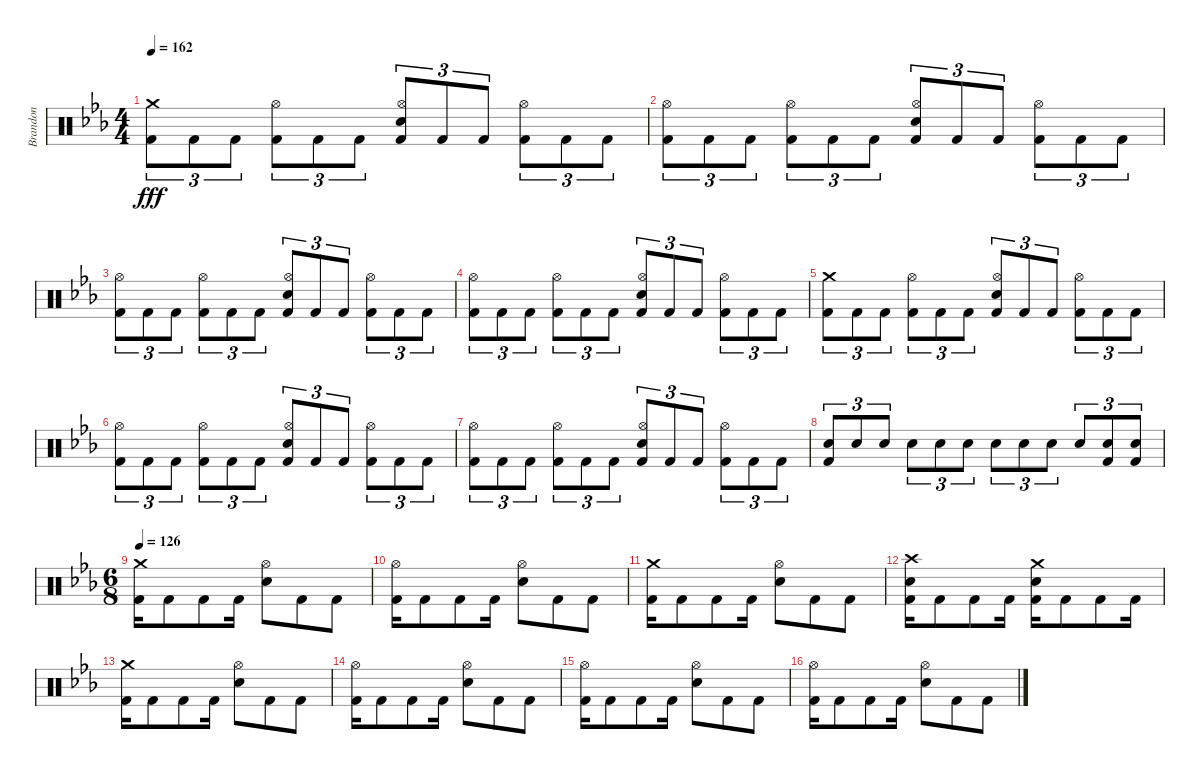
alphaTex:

\track ("Brandon" "Brandon") {instrument percussion}
\staff {score}
\articulation defaults
\ts (4 4)
\tempo 162
\clef neutral
\ks cminor
("Crash medium (hit)" "Kick (hit) 2").8{tu (3 2) dy fff} "Kick (hit) 2".8{tu (3 2)} "Kick (hit) 2".8{tu (3 2)} ("Hi-Hat (open)" "Kick (hit) 2").8{tu (3 2)} "Kick (hit) 2".8{tu (3 2)} "Kick (hit) 2".8{tu (3 2)} ("Hi-Hat (open)" "Electric Snare (hit)" "Kick (hit) 2").8{tu (3 2)} "Kick (hit) 2".8{tu (3 2)} "Kick (hit) 2".8{tu (3 2)} ("Hi-Hat (open)" "Kick (hit) 2").8{tu (3 2)} "Kick (hit) 2".8{tu (3 2)} "Kick (hit) 2".8{tu (3 2)} |
("Hi-Hat (open)" "Kick (hit) 2").8{tu (3 2)} "Kick (hit) 2".8{tu (3 2)} "Kick (hit) 2".8{tu (3 2)} ("Hi-Hat (open)" "Kick (hit) 2").8{tu (3 2)} "Kick (hit) 2".8{tu (3 2)} "Kick (hit) 2".8{tu (3 2)} ("Hi-Hat (open)" "Electric Snare (hit)" "Kick (hit) 2").8{tu (3 2)} "Kick (hit) 2".8{tu (3 2)} "Kick (hit) 2".8{tu (3 2)} ("Hi-Hat (open)" "Kick (hit) 2").8{tu (3 2)} "Kick (hit) 2".8{tu (3 2)} "Kick (hit) 2".8{tu (3 2)} |
("Hi-Hat (open)" "Kick (hit) 2").8{tu (3 2)} "Kick (hit) 2".8{tu (3 2)} "Kick (hit) 2".8{tu (3 2)} ("Hi-Hat (open)" "Kick (hit) 2").8{tu (3 2)} "Kick (hit) 2".8{tu (3 2)} "Kick (hit) 2".8{tu (3 2)} ("Hi-Hat (open)" "Electric Snare (hit)" "Kick (hit) 2").8{tu (3 2)} "Kick (hit) 2".8{tu (3 2)} "Kick (hit) 2".8{tu (3 2)} ("Hi-Hat (open)" "Kick (hit) 2").8{tu (3 2)} "Kick (hit) 2".8{tu (3 2)} "Kick (hit) 2".8{tu (3 2)} |
("Hi-Hat (open)" "Kick (hit) 2").8{tu (3 2)} "Kick (hit) 2".8{tu (3 2)} "Kick (hit) 2".8{tu (3 2)} ("Hi-Hat (open)" "Kick (hit) 2").8{tu (3 2)} "Kick (hit) 2".8{tu (3 2)} "Kick (hit) 2".8{tu (3 2)} ("Hi-Hat (open)" "Electric Snare (hit)" "Kick (hit) 2").8{tu (3 2)} "Kick (hit) 2".8{tu (3 2)} "Kick (hit) 2".8{tu (3 2)} ("Hi-Hat (open)" "Kick (hit) 2").8{tu (3 2)} "Kick (hit) 2".8{tu (3 2)} "Kick (hit) 2".8{tu (3 2)} |
("Crash medium (hit)" "Kick (hit) 2").8{tu (3 2)} "Kick (hit) 2".8{tu (3 2)} "Kick (hit) 2".8{tu (3 2)} ("Hi-Hat (open)" "Kick (hit) 2").8{tu (3 2)} "Kick (hit) 2".8{tu (3 2)} "Kick (hit) 2".8{tu (3 2)} ("Hi-Hat (open)" "Electric Snare (hit)" "Kick (hit) 2").8{tu (3 2)} "Kick (hit) 2".8{tu (3 2)} "Kick (hit) 2".8{tu (3 2)} ("Hi-Hat (open)" "Kick (hit) 2").8{tu (3 2)} "Kick (hit) 2".8{tu (3 2)} "Kick (hit) 2".8{tu (3 2)} |
("Hi-Hat (open)" "Kick (hit) 2").8{tu (3 2)} "Kick (hit) 2".8{tu (3 2)} "Kick (hit) 2".8{tu (3 2)} ("Hi-Hat (open)" "Kick (hit) 2").8{tu (3 2)} "Kick (hit) 2".8{tu (3 2)} "Kick (hit) 2".8{tu (3 2)} ("Hi-Hat (open)" "Electric Snare (hit)" "Kick (hit) 2").8{tu (3 2)} "Kick (hit) 2".8{tu (3 2)} "Kick (hit) 2".8{tu (3 2)} ("Hi-Hat (open)" "Kick (hit) 2").8{tu (3 2)} "Kick (hit) 2".8{tu (3 2)} "Kick (hit) 2".8{tu (3 2)} |
("Hi-Hat (open)" "Kick (hit) 2").8{tu (3 2)} "Kick (hit) 2".8{tu (3 2)} "Kick (hit) 2".8{tu (3 2)} ("Hi-Hat (open)" "Kick (hit) 2").8{tu (3 2)} "Kick (hit) 2".8{tu (3 2)} "Kick (hit) 2".8{tu (3 2)} ("Hi-Hat (open)" "Electric Snare (hit)" "Kick (hit) 2").8{tu (3 2)} "Kick (hit) 2".8{tu (3 2)} "Kick (hit) 2".8{tu (3 2)} ("Hi-Hat (open)" "Kick (hit) 2").8{tu (3 2)} "Kick (hit) 2".8{tu (3 2)} "Kick (hit) 2".8{tu (3 2)} |
("Electric Snare (hit)" "Kick (hit) 2").8{tu (3 2)} "Electric Snare (hit)".8{tu (3 2)} "Electric Snare (hit)".8{tu (3 2)} "Electric Snare (hit)".8{tu (3 2)} "Electric Snare (hit)".8{tu (3 2)} "Electric Snare (hit)".8{tu (3 2)} "Electric Snare (hit)".8{tu (3 2)} "Electric Snare (hit)".8{tu (3 2)} "Electric Snare (hit)".8{tu (3 2)} "Electric Snare (hit)".8{tu (3 2)} ("Electric Snare (hit)" "Kick (hit) 2").8{tu (3 2)} ("Electric Snare (hit)" "Kick (hit) 2").8{tu (3 2)} |
\ts (6 8)
\tempo 126
("Crash medium (hit)" "Kick (hit) 2").16 "Kick (hit) 2".8 "Kick (hit) 2".8 "Kick (hit) 2".16 ("Hi-Hat (open)" "Electric Snare (hit)").8 "Kick (hit) 2".8 "Kick (hit) 2".8 |
("Hi-Hat (open)" "Kick (hit) 2").16 "Kick (hit) 2".8 "Kick (hit) 2".8 "Kick (hit) 2".16 ("Hi-Hat (open)" "Electric Snare (hit)").8 "Kick (hit) 2".8 "Kick (hit) 2".8 |
("Crash medium (hit)" "Kick (hit) 2").16 "Kick (hit) 2".8 "Kick (hit) 2".8 "Kick (hit) 2".16 ("Hi-Hat (open)" "Electric Snare (hit)").8 "Kick (hit) 2".8 "Kick (hit) 2".8 |
("Crash high (hit)" "Electric Snare (hit)" "Kick (hit) 2").16 "Kick (hit) 2".8 "Kick (hit) 2".8 "Kick (hit) 2".16 ("Crash medium (hit)" "Electric Snare (hit)" "Kick (hit) 2").16 "Kick (hit) 2".8 "Kick (hit) 2".8 "Kick (hit) 2".16 |
("Crash medium (hit)" "Kick (hit) 2").16 "Kick (hit) 2".8 "Kick (hit) 2".8 "Kick (hit) 2".16 ("Hi-Hat (open)" "Electric Snare (hit)").8 "Kick (hit) 2".8 "Kick (hit) 2".8 |
("Hi-Hat (open)" "Kick (hit) 2").16 "Kick (hit) 2".8 "Kick (hit) 2".8 "Kick (hit) 2".16 ("Hi-Hat (open)" "Electric Snare (hit)").8 "Kick (hit) 2".8 "Kick (hit) 2".8 |
("Hi-Hat (open)" "Kick (hit) 2").16 "Kick (hit) 2".8 "Kick (hit) 2".8 "Kick (hit) 2".16 ("Hi-Hat (open)" "Electric Snare (hit)").8 "Kick (hit) 2".8 "Kick (hit) 2".8 |
("Hi-Hat (open)" "Kick (hit) 2").16 "Kick (hit) 2".8 "Kick (hit) 2".8 "Kick (hit) 2".16 ("Hi-Hat (open)" "Electric Snare (hit)").8 "Kick (hit) 2".8 "Kick (hit) 2".8
